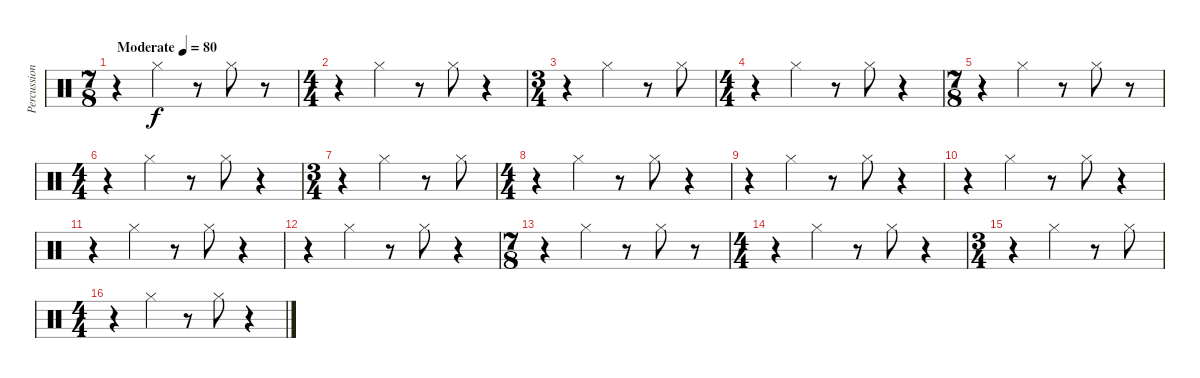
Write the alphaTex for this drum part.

\track ("Percussion" "Percussion") {instrument percussion}
\staff {score}
\articulation defaults
\ts (7 8)
\tempo (80 "Moderate")
\clef neutral
\ks c
r.4{dy f} "Hi-Hat (closed)".4 r.8 "Hi-Hat (closed)".8 r.8 |
\ts (4 4)
r.4 "Hi-Hat (closed)".4 r.8 "Hi-Hat (closed)".8 r.4 |
\ts (3 4)
r.4 "Hi-Hat (closed)".4 r.8 "Hi-Hat (closed)".8 |
\ts (4 4)
r.4 "Hi-Hat (closed)".4 r.8 "Hi-Hat (closed)".8 r.4 |
\ts (7 8)
r.4 "Hi-Hat (closed)".4 r.8 "Hi-Hat (closed)".8 r.8 |
\ts (4 4)
r.4 "Hi-Hat (closed)".4 r.8 "Hi-Hat (closed)".8 r.4 |
\ts (3 4)
r.4 "Hi-Hat (closed)".4 r.8 "Hi-Hat (closed)".8 |
\ts (4 4)
r.4 "Hi-Hat (closed)".4 r.8 "Hi-Hat (closed)".8 r.4 |
r.4 "Hi-Hat (closed)".4 r.8 "Hi-Hat (closed)".8 r.4 |
r.4 "Hi-Hat (closed)".4 r.8 "Hi-Hat (closed)".8 r.4 |
r.4 "Hi-Hat (closed)".4 r.8 "Hi-Hat (closed)".8 r.4 |
r.4 "Hi-Hat (closed)".4 r.8 "Hi-Hat (closed)".8 r.4 |
\ts (7 8)
r.4 "Hi-Hat (closed)".4 r.8 "Hi-Hat (closed)".8 r.8 |
\ts (4 4)
r.4 "Hi-Hat (closed)".4 r.8 "Hi-Hat (closed)".8 r.4 |
\ts (3 4)
r.4 "Hi-Hat (closed)".4 r.8 "Hi-Hat (closed)".8 |
\ts (4 4)
r.4 "Hi-Hat (closed)".4 r.8 "Hi-Hat (closed)".8 r.4
